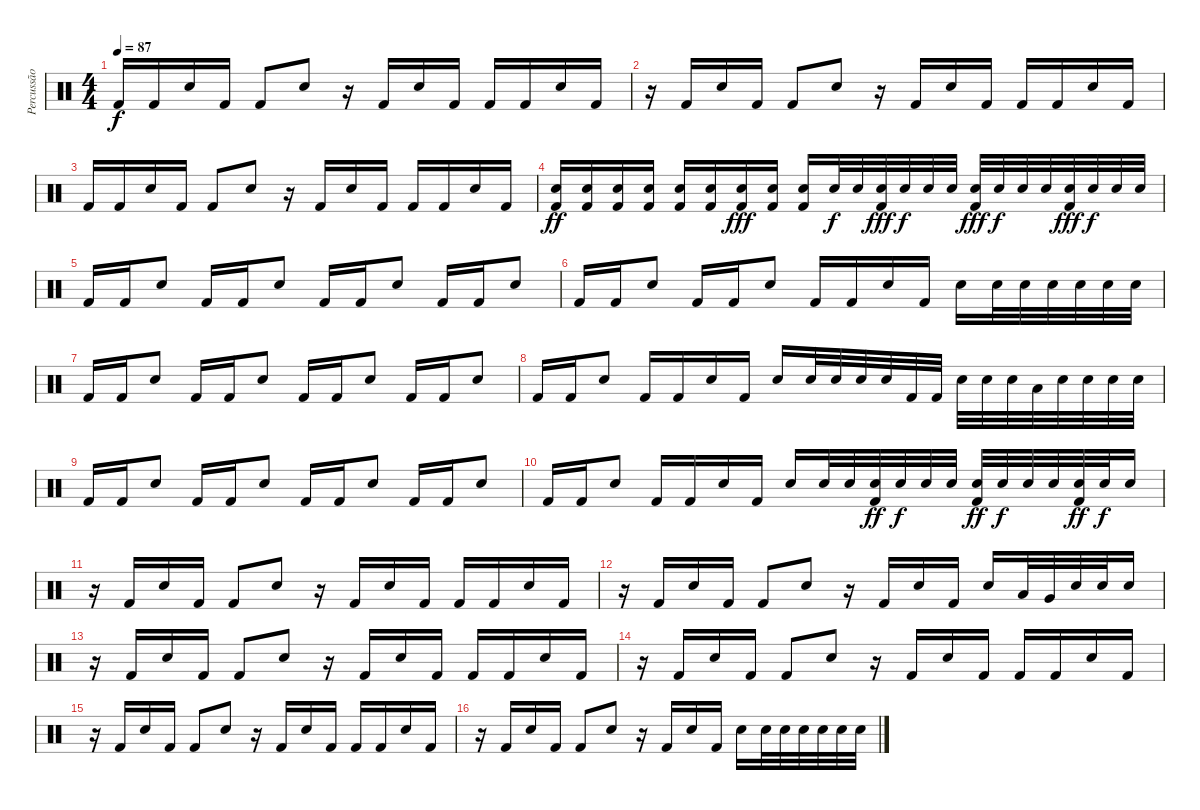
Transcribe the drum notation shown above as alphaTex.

\track ("Percussão" "Percussão") {instrument percussion}
\staff {score}
\articulation defaults
\ts (4 4)
\tempo 87
\clef neutral
\ks c "Kick (hit) 2".16{dy f} "Kick (hit) 2".16 "Electric Snare (hit)".16 "Kick (hit) 2".16 "Kick (hit) 2".8 "Electric Snare (hit)".8
r.16 "Kick (hit) 2".16 "Electric Snare (hit)".16 "Kick (hit) 2".16 "Kick (hit) 2".16 "Kick (hit) 2".16 "Electric Snare (hit)".16 "Kick (hit) 2".16 |
r.16 "Kick (hit) 2".16 "Electric Snare (hit)".16 "Kick (hit) 2".16 "Kick (hit) 2".8 "Electric Snare (hit)".8 r.16 "Kick (hit) 2".16 "Electric Snare (hit)".16 "Kick (hit) 2".16 "Kick (hit) 2".16 "Kick (hit) 2".16 "Electric Snare (hit)".16 "Kick (hit) 2".16 |
"Kick (hit) 2".16 "Kick (hit) 2".16 "Electric Snare (hit)".16 "Kick (hit) 2".16 "Kick (hit) 2".8 "Electric Snare (hit)".8 r.16 "Kick (hit) 2".16 "Electric Snare (hit)".16 "Kick (hit) 2".16 "Kick (hit) 2".16 "Kick (hit) 2".16 "Electric Snare (hit)".16 "Kick (hit) 2".16 |
("Electric Snare (hit)" "Kick (hit) 2").16{dy ff} ("Electric Snare (hit)" "Kick (hit) 2").16 ("Electric Snare (hit)" "Kick (hit) 2").16 ("Electric Snare (hit)" "Kick (hit) 2").16 ("Electric Snare (hit)" "Kick (hit) 2").16 ("Electric Snare (hit)" "Kick (hit) 2").16 ("Electric Snare (hit)" "Kick (hit) 2").16{dy fff} ("Electric Snare (hit)" "Kick (hit) 2").16 ("Electric Snare (hit)" "Kick (hit) 2").16 "Electric Snare (hit)".32{dy f} "Electric Snare (hit)".32 ("Electric Snare (hit)" "Kick (hit) 2").32{dy fff} "Electric Snare (hit)".32{dy f} "Electric Snare (hit)".32 "Electric Snare (hit)".32 ("Electric Snare (hit)" "Kick (hit) 2").32{dy fff} "Electric Snare (hit)".32{dy f} "Electric Snare (hit)".32 "Electric Snare (hit)".32 ("Electric Snare (hit)" "Kick (hit) 2").32{dy fff} "Electric Snare (hit)".32{dy f} "Electric Snare (hit)".32 "Electric Snare (hit)".32 |
"Kick (hit) 2".16 "Kick (hit) 2".16 "Electric Snare (hit)".8 "Kick (hit) 2".16 "Kick (hit) 2".16 "Electric Snare (hit)".8 "Kick (hit) 2".16 "Kick (hit) 2".16 "Electric Snare (hit)".8 "Kick (hit) 2".16 "Kick (hit) 2".16 "Electric Snare (hit)".8 |
"Kick (hit) 2".16 "Kick (hit) 2".16 "Electric Snare (hit)".8 "Kick (hit) 2".16 "Kick (hit) 2".16 "Electric Snare (hit)".8 "Kick (hit) 2".16 "Kick (hit) 2".16 "Electric Snare (hit)".16 "Kick (hit) 2".16 "Electric Snare (hit)".16 "Electric Snare (hit)".32 "Electric Snare (hit)".32 "Electric Snare (hit)".32 "Electric Snare (hit)".32 "Electric Snare (hit)".32 "Electric Snare (hit)".32 |
"Kick (hit) 2".16 "Kick (hit) 2".16 "Electric Snare (hit)".8 "Kick (hit) 2".16 "Kick (hit) 2".16 "Electric Snare (hit)".8 "Kick (hit) 2".16 "Kick (hit) 2".16 "Electric Snare (hit)".8 "Kick (hit) 2".16 "Kick (hit) 2".16 "Electric Snare (hit)".8 |
"Kick (hit) 2".16 "Kick (hit) 2".16 "Electric Snare (hit)".8 "Kick (hit) 2".16 "Kick (hit) 2".16 "Electric Snare (hit)".16 "Kick (hit) 2".16 "Electric Snare (hit)".16 "Electric Snare (hit)".32 "Electric Snare (hit)".32 "Electric Snare (hit)".32 "Electric Snare (hit)".32 "Kick (hit) 2".32 "Kick (hit) 2".32 "Electric Snare (hit)".32 "Electric Snare (hit)".32 "Electric Snare (hit)".32 "Low Tom (hit)".32 "Electric Snare (hit)".32 "Electric Snare (hit)".32 "Electric Snare (hit)".32 "Electric Snare (hit)".32 |
"Kick (hit) 2".16 "Kick (hit) 2".16 "Electric Snare (hit)".8 "Kick (hit) 2".16 "Kick (hit) 2".16 "Electric Snare (hit)".8 "Kick (hit) 2".16 "Kick (hit) 2".16 "Electric Snare (hit)".8 "Kick (hit) 2".16 "Kick (hit) 2".16 "Electric Snare (hit)".8 |
"Kick (hit) 2".16 "Kick (hit) 2".16 "Electric Snare (hit)".8 "Kick (hit) 2".16 "Kick (hit) 2".16 "Electric Snare (hit)".16 "Kick (hit) 2".16 "Electric Snare (hit)".16 "Electric Snare (hit)".32 "Electric Snare (hit)".32 ("Electric Snare (hit)" "Kick (hit) 2").32{dy ff} "Electric Snare (hit)".32{dy f} "Electric Snare (hit)".32 "Electric Snare (hit)".32 ("Electric Snare (hit)" "Kick (hit) 2").32{dy ff} "Electric Snare (hit)".32{dy f} "Electric Snare (hit)".32 "Electric Snare (hit)".32 ("Electric Snare (hit)" "Kick (hit) 2").32{dy ff} "Electric Snare (hit)".32{dy f} "Electric Snare (hit)".16 |
r.16 "Kick (hit) 2".16 "Electric Snare (hit)".16 "Kick (hit) 2".16 "Kick (hit) 2".8 "Electric Snare (hit)".8 r.16 "Kick (hit) 2".16 "Electric Snare (hit)".16 "Kick (hit) 2".16 "Kick (hit) 2".16 "Kick (hit) 2".16 "Electric Snare (hit)".16 "Kick (hit) 2".16 |
r.16 "Kick (hit) 2".16 "Electric Snare (hit)".16 "Kick (hit) 2".16 "Kick (hit) 2".8 "Electric Snare (hit)".8 r.16 "Kick (hit) 2".16 "Electric Snare (hit)".16 "Kick (hit) 2".16 "Electric Snare (hit)".16 "Low Tom (hit)".32 "Very Low Tom (hit)".32 "Electric Snare (hit)".32 "Electric Snare (hit)".32 "Electric Snare (hit)".16 |
r.16 "Kick (hit) 2".16 "Electric Snare (hit)".16 "Kick (hit) 2".16 "Kick (hit) 2".8 "Electric Snare (hit)".8 r.16 "Kick (hit) 2".16 "Electric Snare (hit)".16 "Kick (hit) 2".16 "Kick (hit) 2".16 "Kick (hit) 2".16 "Electric Snare (hit)".16 "Kick (hit) 2".16 |
r.16 "Kick (hit) 2".16 "Electric Snare (hit)".16 "Kick (hit) 2".16 "Kick (hit) 2".8 "Electric Snare (hit)".8 r.16 "Kick (hit) 2".16 "Electric Snare (hit)".16 "Kick (hit) 2".16 "Kick (hit) 2".16 "Kick (hit) 2".16 "Electric Snare (hit)".16 "Kick (hit) 2".16 |
r.16 "Kick (hit) 2".16 "Electric Snare (hit)".16 "Kick (hit) 2".16 "Kick (hit) 2".8 "Electric Snare (hit)".8 r.16 "Kick (hit) 2".16 "Electric Snare (hit)".16 "Kick (hit) 2".16 "Kick (hit) 2".16 "Kick (hit) 2".16 "Electric Snare (hit)".16 "Kick (hit) 2".16 |
r.16 "Kick (hit) 2".16 "Electric Snare (hit)".16 "Kick (hit) 2".16 "Kick (hit) 2".8 "Electric Snare (hit)".8 r.16 "Kick (hit) 2".16 "Electric Snare (hit)".16 "Kick (hit) 2".16 "Electric Snare (hit)".16 "Electric Snare (hit)".32 "Electric Snare (hit)".32 "Electric Snare (hit)".32 "Electric Snare (hit)".32 "Electric Snare (hit)".32 "Electric Snare (hit)".32
